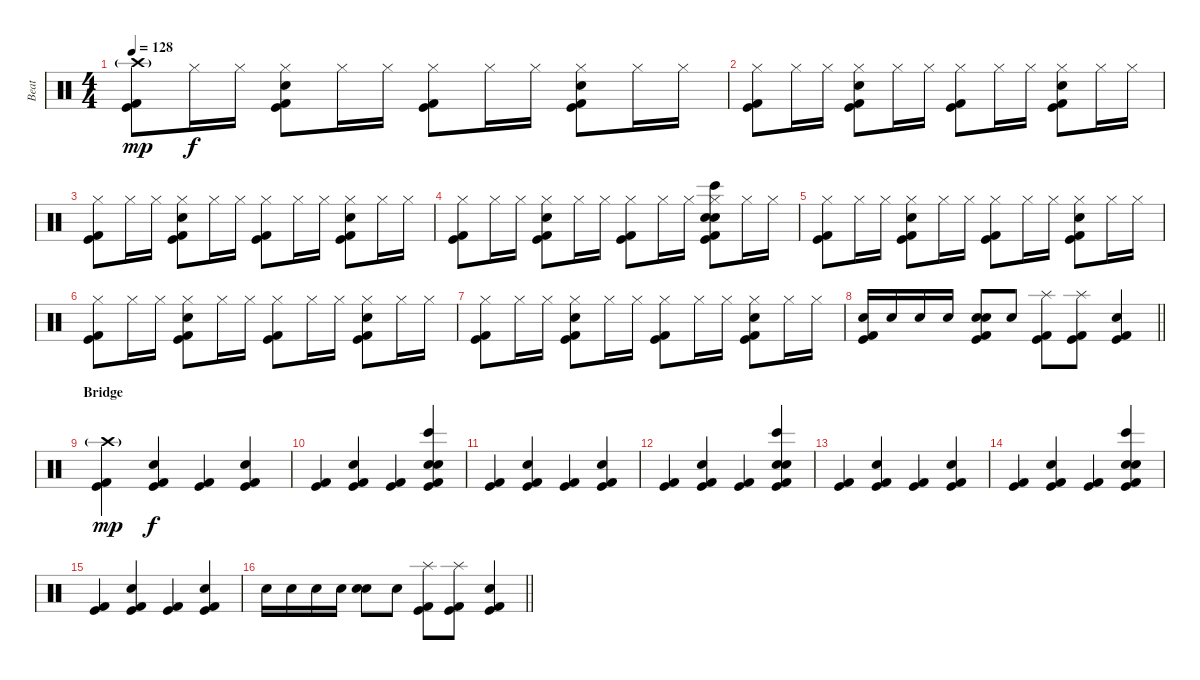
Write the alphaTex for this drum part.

\track ("Beat" "Beat") {instrument percussion}
\staff {score}
\articulation defaults
\ts (4 4)
\tempo 128
\clef neutral
\ks c
("Crash high (hit)"{g} "Kick (hit) 2" "Kick (hit)").8{dy mp} "Hi-Hat (closed)".16{dy f} "Hi-Hat (closed)".16 ("Hi-Hat (closed)" "Hand Clap (hit)" "Kick (hit) 2" "Kick (hit)").8 "Hi-Hat (closed)".16 "Hi-Hat (closed)".16 ("Hi-Hat (closed)" "Kick (hit) 2" "Kick (hit)").8 "Hi-Hat (closed)".16 "Hi-Hat (closed)".16 ("Hi-Hat (closed)" "Hand Clap (hit)" "Kick (hit) 2" "Kick (hit)").8 "Hi-Hat (closed)".16 "Hi-Hat (closed)".16 |
("Hi-Hat (closed)" "Kick (hit) 2" "Kick (hit)").8 "Hi-Hat (closed)".16 "Hi-Hat (closed)".16 ("Hi-Hat (closed)" "Hand Clap (hit)" "Kick (hit) 2" "Kick (hit)").8 "Hi-Hat (closed)".16 "Hi-Hat (closed)".16 ("Hi-Hat (closed)" "Kick (hit) 2" "Kick (hit)").8 "Hi-Hat (closed)".16 "Hi-Hat (closed)".16 ("Hi-Hat (closed)" "Hand Clap (hit)" "Kick (hit) 2" "Kick (hit)").8 "Hi-Hat (closed)".16 "Hi-Hat (closed)".16 |
("Hi-Hat (closed)" "Kick (hit) 2" "Kick (hit)").8 "Hi-Hat (closed)".16 "Hi-Hat (closed)".16 ("Hi-Hat (closed)" "Hand Clap (hit)" "Kick (hit) 2" "Kick (hit)").8 "Hi-Hat (closed)".16 "Hi-Hat (closed)".16 ("Hi-Hat (closed)" "Kick (hit) 2" "Kick (hit)").8 "Hi-Hat (closed)".16 "Hi-Hat (closed)".16 ("Hi-Hat (closed)" "Hand Clap (hit)" "Kick (hit) 2" "Kick (hit)").8 "Hi-Hat (closed)".16 "Hi-Hat (closed)".16 |
("Hi-Hat (closed)" "Kick (hit) 2" "Kick (hit)").8 "Hi-Hat (closed)".16 "Hi-Hat (closed)".16 ("Hi-Hat (closed)" "Hand Clap (hit)" "Kick (hit) 2" "Kick (hit)").8 "Hi-Hat (closed)".16 "Hi-Hat (closed)".16 ("Hi-Hat (closed)" "Kick (hit) 2" "Kick (hit)").8 "Hi-Hat (closed)".16 "Hi-Hat (closed)".16 ("Bongo High (hit)" "Hi-Hat (closed)" "Hand Clap (hit)" "Snare (hit) 2" "Kick (hit) 2" "Kick (hit)").8 "Hi-Hat (closed)".16 "Hi-Hat (closed)".16 |
("Hi-Hat (closed)" "Kick (hit) 2" "Kick (hit)").8 "Hi-Hat (closed)".16 "Hi-Hat (closed)".16 ("Hi-Hat (closed)" "Hand Clap (hit)" "Kick (hit) 2" "Kick (hit)").8 "Hi-Hat (closed)".16 "Hi-Hat (closed)".16 ("Hi-Hat (closed)" "Kick (hit) 2" "Kick (hit)").8 "Hi-Hat (closed)".16 "Hi-Hat (closed)".16 ("Hi-Hat (closed)" "Hand Clap (hit)" "Kick (hit) 2" "Kick (hit)").8 "Hi-Hat (closed)".16 "Hi-Hat (closed)".16 |
("Hi-Hat (closed)" "Kick (hit) 2" "Kick (hit)").8 "Hi-Hat (closed)".16 "Hi-Hat (closed)".16 ("Hi-Hat (closed)" "Hand Clap (hit)" "Kick (hit) 2" "Kick (hit)").8 "Hi-Hat (closed)".16 "Hi-Hat (closed)".16 ("Hi-Hat (closed)" "Kick (hit) 2" "Kick (hit)").8 "Hi-Hat (closed)".16 "Hi-Hat (closed)".16 ("Hi-Hat (closed)" "Hand Clap (hit)" "Kick (hit) 2" "Kick (hit)").8 "Hi-Hat (closed)".16 "Hi-Hat (closed)".16 |
("Hi-Hat (closed)" "Kick (hit) 2" "Kick (hit)").8 "Hi-Hat (closed)".16 "Hi-Hat (closed)".16 ("Hi-Hat (closed)" "Hand Clap (hit)" "Kick (hit) 2" "Kick (hit)").8 "Hi-Hat (closed)".16 "Hi-Hat (closed)".16 ("Hi-Hat (closed)" "Kick (hit) 2" "Kick (hit)").8 "Hi-Hat (closed)".16 "Hi-Hat (closed)".16 ("Hi-Hat (closed)" "Hand Clap (hit)" "Kick (hit) 2" "Kick (hit)").8 "Hi-Hat (closed)".16 "Hi-Hat (closed)".16 |
\barLineRight lightlight
("Electric Snare (hit)" "Kick (hit) 2" "Kick (hit)").16 "Electric Snare (hit)".16 "Electric Snare (hit)".16 "Electric Snare (hit)".16 ("Hand Clap (hit)" "Electric Snare (hit)" "Kick (hit) 2" "Kick (hit)").8 "Electric Snare (hit)".8 ("Splash (hit)" "Kick (hit) 2" "Kick (hit)").8 ("Splash (hit)" "Kick (hit) 2" "Kick (hit)").8 ("Snare (hit) 2" "Kick (hit) 2" "Kick (hit)").4 |
\section ("" "Bridge")
("Crash high (hit)"{g} "Kick (hit) 2" "Kick (hit)").4{dy mp} ("Hand Clap (hit)" "Kick (hit) 2" "Kick (hit)").4{dy f} ("Kick (hit) 2" "Kick (hit)").4 ("Hand Clap (hit)" "Kick (hit) 2" "Kick (hit)").4 |
("Kick (hit) 2" "Kick (hit)").4 ("Hand Clap (hit)" "Kick (hit) 2" "Kick (hit)").4 ("Kick (hit) 2" "Kick (hit)").4 ("Hand Clap (hit)" "Snare (hit) 2" "Bongo High (hit)" "Kick (hit) 2" "Kick (hit)").4 |
("Kick (hit) 2" "Kick (hit)").4 ("Hand Clap (hit)" "Kick (hit) 2" "Kick (hit)").4 ("Kick (hit) 2" "Kick (hit)").4 ("Hand Clap (hit)" "Kick (hit) 2" "Kick (hit)").4 |
("Kick (hit) 2" "Kick (hit)").4 ("Hand Clap (hit)" "Kick (hit) 2" "Kick (hit)").4 ("Kick (hit) 2" "Kick (hit)").4 ("Hand Clap (hit)" "Snare (hit) 2" "Bongo High (hit)" "Kick (hit) 2" "Kick (hit)").4 |
("Kick (hit) 2" "Kick (hit)").4 ("Hand Clap (hit)" "Kick (hit) 2" "Kick (hit)").4 ("Kick (hit) 2" "Kick (hit)").4 ("Hand Clap (hit)" "Kick (hit) 2" "Kick (hit)").4 |
("Kick (hit) 2" "Kick (hit)").4 ("Hand Clap (hit)" "Kick (hit) 2" "Kick (hit)").4 ("Kick (hit) 2" "Kick (hit)").4 ("Hand Clap (hit)" "Snare (hit) 2" "Bongo High (hit)" "Kick (hit) 2" "Kick (hit)").4 |
("Kick (hit) 2" "Kick (hit)").4 ("Hand Clap (hit)" "Kick (hit) 2" "Kick (hit)").4 ("Kick (hit) 2" "Kick (hit)").4 ("Hand Clap (hit)" "Kick (hit) 2" "Kick (hit)").4 |
\barLineRight lightlight "Electric Snare (hit)".16 "Electric Snare (hit)".16 "Electric Snare (hit)".16 "Electric Snare (hit)".16
("Hand Clap (hit)" "Electric Snare (hit)").8 "Electric Snare (hit)".8 ("Splash (hit)" "Kick (hit) 2" "Kick (hit)").8 ("Splash (hit)" "Kick (hit) 2" "Kick (hit)").8 ("Snare (hit) 2" "Kick (hit) 2" "Kick (hit)").4
